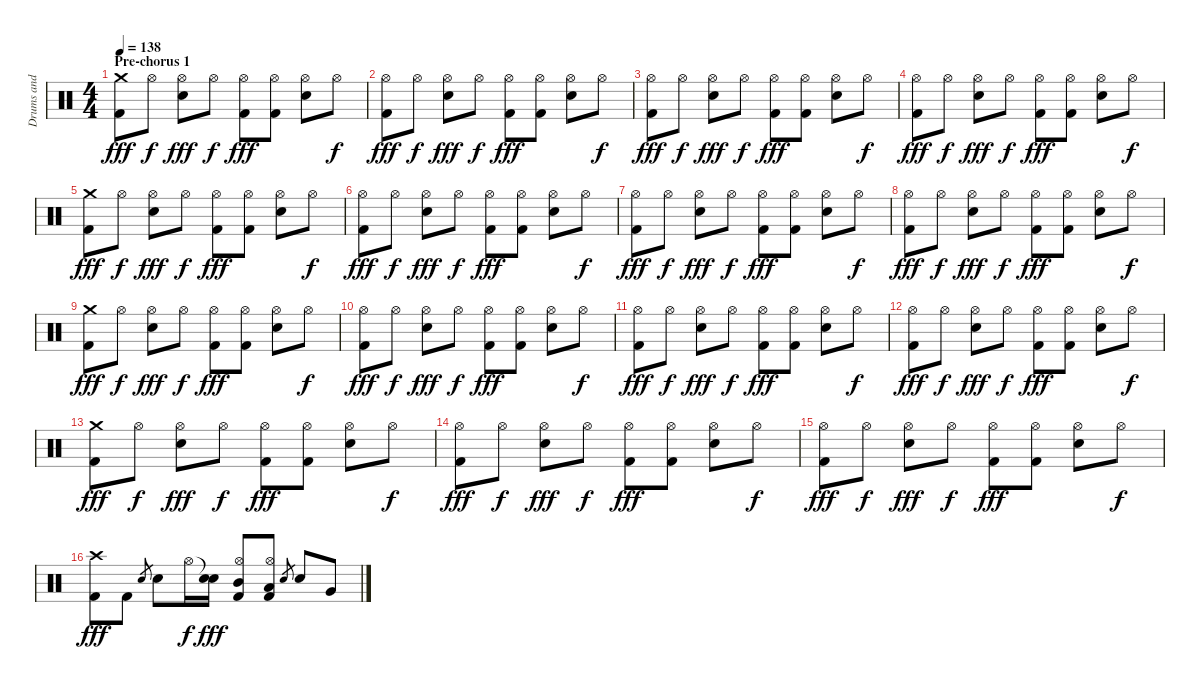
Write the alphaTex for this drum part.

\track ("Drums and Percussion" "Drums and ") {instrument percussion}
\staff {score}
\articulation defaults
\ts (4 4)
\section ("" "Pre-chorus 1")
\tempo 138
\clef neutral
\ks c
("Crash medium (hit)" "Kick (hit) 2").8{dy fff} "Hi-Hat (open)".8{dy f} ("Hi-Hat (open)" "Snare (hit) 2").8{dy fff} "Hi-Hat (open)".8{dy f} ("Hi-Hat (open)" "Kick (hit) 2").8{dy fff} ("Hi-Hat (open)" "Kick (hit) 2").8 ("Hi-Hat (open)" "Snare (hit) 2").8 "Hi-Hat (open)".8{dy f} |
("Hi-Hat (open)" "Kick (hit) 2").8{dy fff} "Hi-Hat (open)".8{dy f} ("Hi-Hat (open)" "Snare (hit) 2").8{dy fff} "Hi-Hat (open)".8{dy f} ("Hi-Hat (open)" "Kick (hit) 2").8{dy fff} ("Hi-Hat (open)" "Kick (hit) 2").8 ("Hi-Hat (open)" "Snare (hit) 2").8 "Hi-Hat (open)".8{dy f} |
("Hi-Hat (open)" "Kick (hit) 2").8{dy fff} "Hi-Hat (open)".8{dy f} ("Hi-Hat (open)" "Snare (hit) 2").8{dy fff} "Hi-Hat (open)".8{dy f} ("Hi-Hat (open)" "Kick (hit) 2").8{dy fff} ("Hi-Hat (open)" "Kick (hit) 2").8 ("Hi-Hat (open)" "Snare (hit) 2").8 "Hi-Hat (open)".8{dy f} |
("Hi-Hat (open)" "Kick (hit) 2").8{dy fff} "Hi-Hat (open)".8{dy f} ("Hi-Hat (open)" "Snare (hit) 2").8{dy fff} "Hi-Hat (open)".8{dy f} ("Hi-Hat (open)" "Kick (hit) 2").8{dy fff} ("Hi-Hat (open)" "Kick (hit) 2").8 ("Hi-Hat (open)" "Snare (hit) 2").8 "Hi-Hat (open)".8{dy f} |
("Crash medium (hit)" "Kick (hit) 2").8{dy fff} "Hi-Hat (open)".8{dy f} ("Hi-Hat (open)" "Snare (hit) 2").8{dy fff} "Hi-Hat (open)".8{dy f} ("Hi-Hat (open)" "Kick (hit) 2").8{dy fff} ("Hi-Hat (open)" "Kick (hit) 2").8 ("Hi-Hat (open)" "Snare (hit) 2").8 "Hi-Hat (open)".8{dy f} |
("Hi-Hat (open)" "Kick (hit) 2").8{dy fff} "Hi-Hat (open)".8{dy f} ("Hi-Hat (open)" "Snare (hit) 2").8{dy fff} "Hi-Hat (open)".8{dy f} ("Hi-Hat (open)" "Kick (hit) 2").8{dy fff} ("Hi-Hat (open)" "Kick (hit) 2").8 ("Hi-Hat (open)" "Snare (hit) 2").8 "Hi-Hat (open)".8{dy f} |
("Hi-Hat (open)" "Kick (hit) 2").8{dy fff} "Hi-Hat (open)".8{dy f} ("Hi-Hat (open)" "Snare (hit) 2").8{dy fff} "Hi-Hat (open)".8{dy f} ("Hi-Hat (open)" "Kick (hit) 2").8{dy fff} ("Hi-Hat (open)" "Kick (hit) 2").8 ("Hi-Hat (open)" "Snare (hit) 2").8 "Hi-Hat (open)".8{dy f} |
("Hi-Hat (open)" "Kick (hit) 2").8{dy fff} "Hi-Hat (open)".8{dy f} ("Hi-Hat (open)" "Snare (hit) 2").8{dy fff} "Hi-Hat (open)".8{dy f} ("Hi-Hat (open)" "Kick (hit) 2").8{dy fff} ("Hi-Hat (open)" "Kick (hit) 2").8 ("Hi-Hat (open)" "Snare (hit) 2").8 "Hi-Hat (open)".8{dy f} |
("Crash medium (hit)" "Kick (hit) 2").8{dy fff} "Hi-Hat (open)".8{dy f} ("Hi-Hat (open)" "Snare (hit) 2").8{dy fff} "Hi-Hat (open)".8{dy f} ("Hi-Hat (open)" "Kick (hit) 2").8{dy fff} ("Hi-Hat (open)" "Kick (hit) 2").8 ("Hi-Hat (open)" "Snare (hit) 2").8 "Hi-Hat (open)".8{dy f} |
("Hi-Hat (open)" "Kick (hit) 2").8{dy fff} "Hi-Hat (open)".8{dy f} ("Hi-Hat (open)" "Snare (hit) 2").8{dy fff} "Hi-Hat (open)".8{dy f} ("Hi-Hat (open)" "Kick (hit) 2").8{dy fff} ("Hi-Hat (open)" "Kick (hit) 2").8 ("Hi-Hat (open)" "Snare (hit) 2").8 "Hi-Hat (open)".8{dy f} |
("Hi-Hat (open)" "Kick (hit) 2").8{dy fff} "Hi-Hat (open)".8{dy f} ("Hi-Hat (open)" "Snare (hit) 2").8{dy fff} "Hi-Hat (open)".8{dy f} ("Hi-Hat (open)" "Kick (hit) 2").8{dy fff} ("Hi-Hat (open)" "Kick (hit) 2").8 ("Hi-Hat (open)" "Snare (hit) 2").8 "Hi-Hat (open)".8{dy f} |
("Hi-Hat (open)" "Kick (hit) 2").8{dy fff} "Hi-Hat (open)".8{dy f} ("Hi-Hat (open)" "Snare (hit) 2").8{dy fff} "Hi-Hat (open)".8{dy f} ("Hi-Hat (open)" "Kick (hit) 2").8{dy fff} ("Hi-Hat (open)" "Kick (hit) 2").8 ("Hi-Hat (open)" "Snare (hit) 2").8 "Hi-Hat (open)".8{dy f} |
("Crash medium (hit)" "Kick (hit) 2").8{dy fff} "Hi-Hat (open)".8{dy f} ("Hi-Hat (open)" "Snare (hit) 2").8{dy fff} "Hi-Hat (open)".8{dy f} ("Hi-Hat (open)" "Kick (hit) 2").8{dy fff} ("Hi-Hat (open)" "Kick (hit) 2").8 ("Hi-Hat (open)" "Snare (hit) 2").8 "Hi-Hat (open)".8{dy f} |
("Hi-Hat (open)" "Kick (hit) 2").8{dy fff} "Hi-Hat (open)".8{dy f} ("Hi-Hat (open)" "Snare (hit) 2").8{dy fff} "Hi-Hat (open)".8{dy f} ("Hi-Hat (open)" "Kick (hit) 2").8{dy fff} ("Hi-Hat (open)" "Kick (hit) 2").8 ("Hi-Hat (open)" "Snare (hit) 2").8 "Hi-Hat (open)".8{dy f} |
("Hi-Hat (open)" "Kick (hit) 2").8{dy fff} "Hi-Hat (open)".8{dy f} ("Hi-Hat (open)" "Snare (hit) 2").8{dy fff} "Hi-Hat (open)".8{dy f} ("Hi-Hat (open)" "Kick (hit) 2").8{dy fff} ("Hi-Hat (open)" "Kick (hit) 2").8 ("Hi-Hat (open)" "Snare (hit) 2").8 "Hi-Hat (open)".8{dy f} |
("Crash high (hit)" "Kick (hit) 2").8{dy fff} "Kick (hit) 2".8 "Snare (hit) 2".8{gr} "Snare (hit) 2".8 "Hi-Hat (open)".16{dy f} ("Snare (hit)"{t} "Snare (hit) 2").16{dy fff} ("Hi-Hat (open)" "Mid Tom (hit)" "Kick (hit) 2").8 ("Hi-Hat (open)" "Low Tom (hit)" "Kick (hit) 2").8 "Snare (hit) 2".8{gr} "Snare (hit) 2".8 "Very Low Tom (hit)".8
